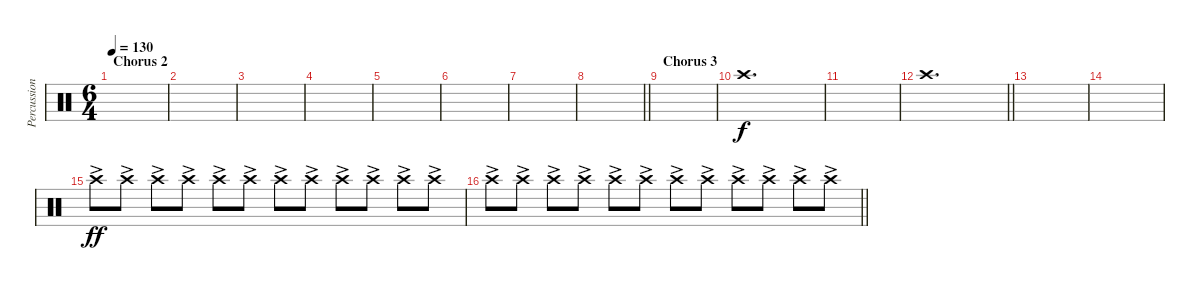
\track ("Percussion" "Percussion") {instrument percussion}
\staff {score}
\articulation defaults
\ts (6 4)
\section ("" "Chorus 2")
\tempo 130
\clef neutral
\ks c
|
|
|
|
|
|
|
\barLineRight lightlight
|
\section ("" "Chorus 3")
|
"Crash high (hit)".1{d} |
|
\barLineRight lightlight "Crash high (hit)".1{d}
|
|
|
"Crash high (hit)"{ac}.8{dy ff volume 7} "Crash high (hit)"{ac}.8 "Crash high (hit)"{ac}.8 "Crash high (hit)"{ac}.8 "Crash high (hit)"{ac}.8 "Crash high (hit)"{ac}.8 "Crash high (hit)"{ac}.8 "Crash high (hit)"{ac}.8 "Crash high (hit)"{ac}.8 "Crash high (hit)"{ac}.8 "Crash high (hit)"{ac}.8 "Crash high (hit)"{ac}.8 |
\barLineRight lightlight "Crash high (hit)"{ac}.8 "Crash high (hit)"{ac}.8 "Crash high (hit)"{ac}.8 "Crash high (hit)"{ac}.8 "Crash high (hit)"{ac}.8 "Crash high (hit)"{ac}.8 "Crash high (hit)"{ac}.8 "Crash high (hit)"{ac}.8 "Crash high (hit)"{ac}.8 "Crash high (hit)"{ac}.8 "Crash high (hit)"{ac}.8 "Crash high (hit)"{ac}.8
